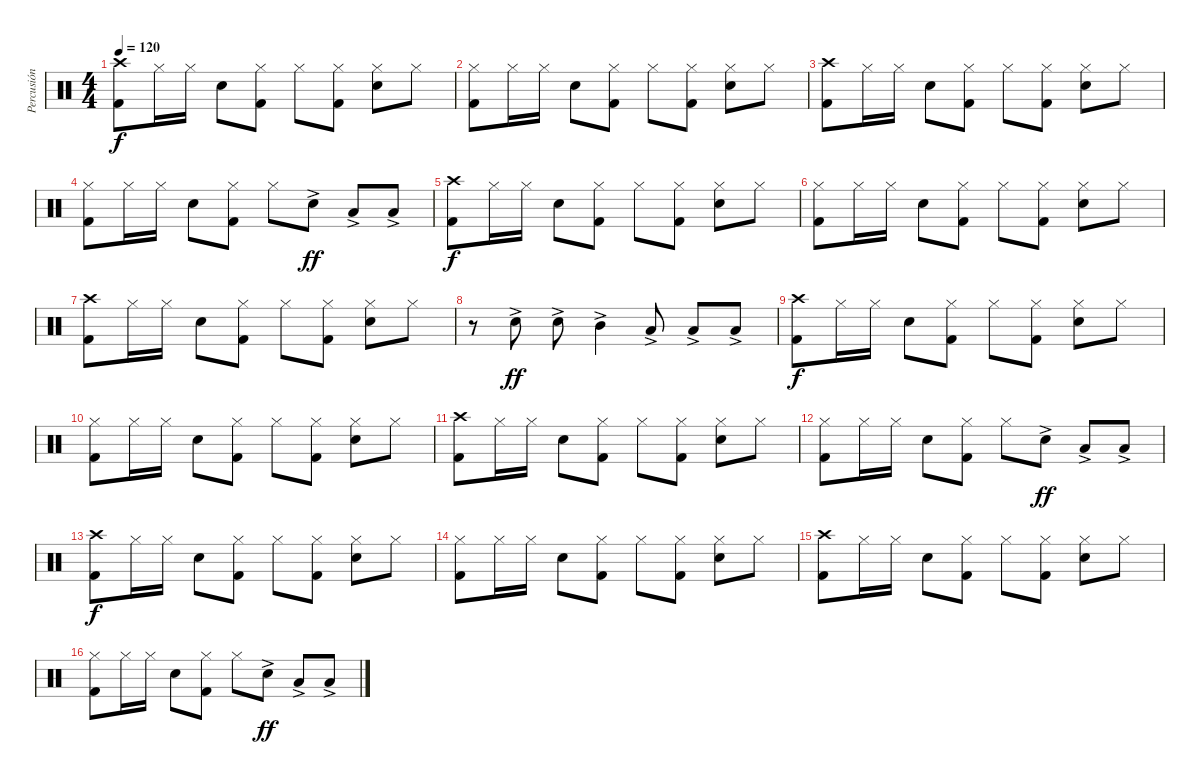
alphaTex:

\track ("Percusión" "Percusión") {instrument percussion}
\staff {score}
\articulation defaults
\ts (4 4)
\tempo 120
\clef neutral
\ks c
("Crash high (hit)" "Kick (hit) 2").8{dy f} "Hi-Hat (closed)".16 "Hi-Hat (closed)".16 "Snare (hit) 2".8 ("Hi-Hat (closed)" "Kick (hit) 2").8 "Hi-Hat (closed)".8 ("Hi-Hat (closed)" "Kick (hit) 2").8 ("Hi-Hat (closed)" "Snare (hit) 2").8 "Hi-Hat (closed)".8 |
("Hi-Hat (closed)" "Kick (hit) 2").8 "Hi-Hat (closed)".16 "Hi-Hat (closed)".16 "Snare (hit) 2".8 ("Hi-Hat (closed)" "Kick (hit) 2").8 "Hi-Hat (closed)".8 ("Hi-Hat (closed)" "Kick (hit) 2").8 ("Hi-Hat (closed)" "Snare (hit) 2").8 "Hi-Hat (closed)".8 |
("Crash high (hit)" "Kick (hit) 2").8 "Hi-Hat (closed)".16 "Hi-Hat (closed)".16 "Snare (hit) 2".8 ("Hi-Hat (closed)" "Kick (hit) 2").8 "Hi-Hat (closed)".8 ("Hi-Hat (closed)" "Kick (hit) 2").8 ("Hi-Hat (closed)" "Snare (hit) 2").8 "Hi-Hat (closed)".8 |
("Hi-Hat (closed)" "Kick (hit) 2").8 "Hi-Hat (closed)".16 "Hi-Hat (closed)".16 "Snare (hit) 2".8 ("Hi-Hat (closed)" "Kick (hit) 2").8 "Hi-Hat (closed)".8 "Snare (hit) 2"{ac}.8{dy ff} "Low Tom (hit)"{ac}.8 "Low Floor Tom (hit)"{ac}.8 |
("Crash high (hit)" "Kick (hit) 2").8{dy f} "Hi-Hat (closed)".16 "Hi-Hat (closed)".16 "Snare (hit) 2".8 ("Hi-Hat (closed)" "Kick (hit) 2").8 "Hi-Hat (closed)".8 ("Hi-Hat (closed)" "Kick (hit) 2").8 ("Hi-Hat (closed)" "Snare (hit) 2").8 "Hi-Hat (closed)".8 |
("Hi-Hat (closed)" "Kick (hit) 2").8 "Hi-Hat (closed)".16 "Hi-Hat (closed)".16 "Snare (hit) 2".8 ("Hi-Hat (closed)" "Kick (hit) 2").8 "Hi-Hat (closed)".8 ("Hi-Hat (closed)" "Kick (hit) 2").8 ("Hi-Hat (closed)" "Snare (hit) 2").8 "Hi-Hat (closed)".8 |
("Crash high (hit)" "Kick (hit) 2").8 "Hi-Hat (closed)".16 "Hi-Hat (closed)".16 "Snare (hit) 2".8 ("Hi-Hat (closed)" "Kick (hit) 2").8 "Hi-Hat (closed)".8 ("Hi-Hat (closed)" "Kick (hit) 2").8 ("Hi-Hat (closed)" "Snare (hit) 2").8 "Hi-Hat (closed)".8 |
r.8 "Snare (hit) 2"{ac}.8{dy ff} "Snare (hit) 2"{ac}.8 "Mid Tom (hit)"{ac}.4 "Low Tom (hit)"{ac}.8 "Low Tom (hit)"{ac}.8 "Low Floor Tom (hit)"{ac}.8 |
("Crash high (hit)" "Kick (hit) 2").8{dy f} "Hi-Hat (closed)".16 "Hi-Hat (closed)".16 "Snare (hit) 2".8 ("Hi-Hat (closed)" "Kick (hit) 2").8 "Hi-Hat (closed)".8 ("Hi-Hat (closed)" "Kick (hit) 2").8 ("Hi-Hat (closed)" "Snare (hit) 2").8 "Hi-Hat (closed)".8 |
("Hi-Hat (closed)" "Kick (hit) 2").8 "Hi-Hat (closed)".16 "Hi-Hat (closed)".16 "Snare (hit) 2".8 ("Hi-Hat (closed)" "Kick (hit) 2").8 "Hi-Hat (closed)".8 ("Hi-Hat (closed)" "Kick (hit) 2").8 ("Hi-Hat (closed)" "Snare (hit) 2").8 "Hi-Hat (closed)".8 |
("Crash high (hit)" "Kick (hit) 2").8 "Hi-Hat (closed)".16 "Hi-Hat (closed)".16 "Snare (hit) 2".8 ("Hi-Hat (closed)" "Kick (hit) 2").8 "Hi-Hat (closed)".8 ("Hi-Hat (closed)" "Kick (hit) 2").8 ("Hi-Hat (closed)" "Snare (hit) 2").8 "Hi-Hat (closed)".8 |
("Hi-Hat (closed)" "Kick (hit) 2").8 "Hi-Hat (closed)".16 "Hi-Hat (closed)".16 "Snare (hit) 2".8 ("Hi-Hat (closed)" "Kick (hit) 2").8 "Hi-Hat (closed)".8 "Snare (hit) 2"{ac}.8{dy ff} "Low Tom (hit)"{ac}.8 "Low Floor Tom (hit)"{ac}.8 |
("Crash high (hit)" "Kick (hit) 2").8{dy f} "Hi-Hat (closed)".16 "Hi-Hat (closed)".16 "Snare (hit) 2".8 ("Hi-Hat (closed)" "Kick (hit) 2").8 "Hi-Hat (closed)".8 ("Hi-Hat (closed)" "Kick (hit) 2").8 ("Hi-Hat (closed)" "Snare (hit) 2").8 "Hi-Hat (closed)".8 |
("Hi-Hat (closed)" "Kick (hit) 2").8 "Hi-Hat (closed)".16 "Hi-Hat (closed)".16 "Snare (hit) 2".8 ("Hi-Hat (closed)" "Kick (hit) 2").8 "Hi-Hat (closed)".8 ("Hi-Hat (closed)" "Kick (hit) 2").8 ("Hi-Hat (closed)" "Snare (hit) 2").8 "Hi-Hat (closed)".8 |
("Crash high (hit)" "Kick (hit) 2").8 "Hi-Hat (closed)".16 "Hi-Hat (closed)".16 "Snare (hit) 2".8 ("Hi-Hat (closed)" "Kick (hit) 2").8 "Hi-Hat (closed)".8 ("Hi-Hat (closed)" "Kick (hit) 2").8 ("Hi-Hat (closed)" "Snare (hit) 2").8 "Hi-Hat (closed)".8 |
("Hi-Hat (closed)" "Kick (hit) 2").8 "Hi-Hat (closed)".16 "Hi-Hat (closed)".16 "Snare (hit) 2".8 ("Hi-Hat (closed)" "Kick (hit) 2").8 "Hi-Hat (closed)".8 "Snare (hit) 2"{ac}.8{dy ff} "Low Tom (hit)"{ac}.8 "Low Floor Tom (hit)"{ac}.8
